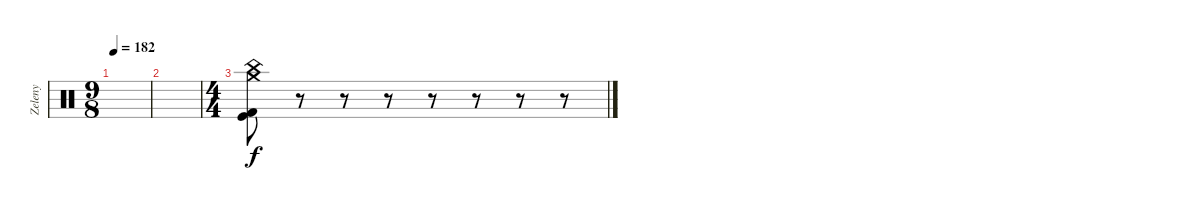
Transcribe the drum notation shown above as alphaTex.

\track ("Zeleny" "Zeleny") {instrument percussion}
\staff {score}
\articulation defaults
\ts (9 8)
\tempo 182
\clef neutral
\ks c
|
|
\ts (4 4)
("China (hit)" "Crash medium (hit)" "Kick (hit)" "Kick (hit) 2").8 r.8 r.8 r.8 r.8 r.8 r.8 r.8
